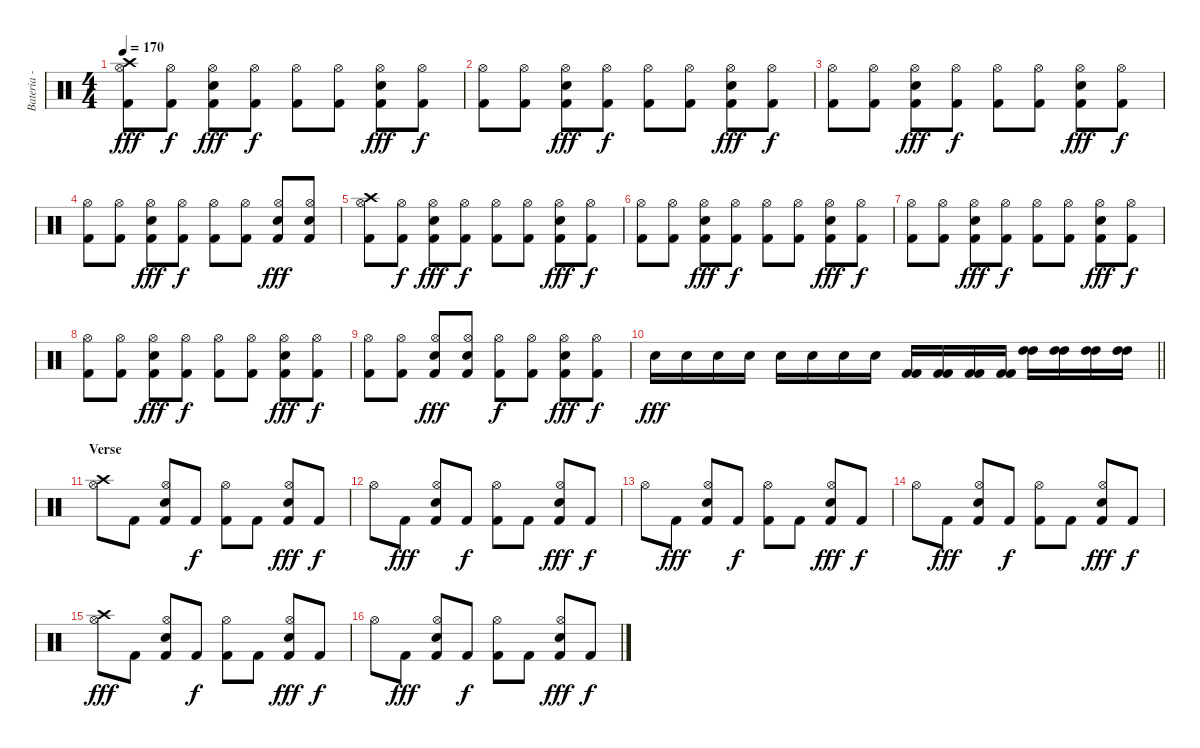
\track ("Bateria - Larzon" "Bateria - ") {instrument percussion}
\staff {score}
\articulation defaults
\ts (4 4)
\tempo 170
\clef neutral
\ks c
("Crash high (hit)" "Kick (hit) 2" "Hi-Hat (open)").8{dy fff} ("Kick (hit) 2" "Hi-Hat (open)").8{dy f} ("Kick (hit) 2" "Hi-Hat (open)" "Snare (hit) 2").8{dy fff} ("Kick (hit) 2" "Hi-Hat (open)").8{dy f} ("Kick (hit) 2" "Hi-Hat (open)").8 ("Kick (hit) 2" "Hi-Hat (open)").8 ("Kick (hit) 2" "Hi-Hat (open)" "Snare (hit) 2").8{dy fff} ("Kick (hit) 2" "Hi-Hat (open)").8{dy f} |
("Kick (hit) 2" "Hi-Hat (open)").8 ("Kick (hit) 2" "Hi-Hat (open)").8 ("Kick (hit) 2" "Hi-Hat (open)" "Snare (hit) 2").8{dy fff} ("Kick (hit) 2" "Hi-Hat (open)").8{dy f} ("Kick (hit) 2" "Hi-Hat (open)").8 ("Kick (hit) 2" "Hi-Hat (open)").8 ("Kick (hit) 2" "Hi-Hat (open)" "Snare (hit) 2").8{dy fff} ("Kick (hit) 2" "Hi-Hat (open)").8{dy f} |
("Kick (hit) 2" "Hi-Hat (open)").8 ("Kick (hit) 2" "Hi-Hat (open)").8 ("Kick (hit) 2" "Hi-Hat (open)" "Snare (hit) 2").8{dy fff} ("Kick (hit) 2" "Hi-Hat (open)").8{dy f} ("Kick (hit) 2" "Hi-Hat (open)").8 ("Kick (hit) 2" "Hi-Hat (open)").8 ("Kick (hit) 2" "Hi-Hat (open)" "Snare (hit) 2").8{dy fff} ("Kick (hit) 2" "Hi-Hat (open)").8{dy f} |
("Kick (hit) 2" "Hi-Hat (open)").8 ("Kick (hit) 2" "Hi-Hat (open)").8 ("Kick (hit) 2" "Hi-Hat (open)" "Snare (hit) 2").8{dy fff} ("Kick (hit) 2" "Hi-Hat (open)").8{dy f} ("Kick (hit) 2" "Hi-Hat (open)").8 ("Kick (hit) 2" "Hi-Hat (open)").8 ("Kick (hit) 2" "Hi-Hat (open)" "Snare (hit) 2").8{dy fff} ("Kick (hit) 2" "Hi-Hat (open)" "Snare (hit) 2").8 |
("Crash high (hit)" "Kick (hit) 2" "Hi-Hat (open)").8 ("Kick (hit) 2" "Hi-Hat (open)").8{dy f} ("Kick (hit) 2" "Hi-Hat (open)" "Snare (hit) 2").8{dy fff} ("Kick (hit) 2" "Hi-Hat (open)").8{dy f} ("Kick (hit) 2" "Hi-Hat (open)").8 ("Kick (hit) 2" "Hi-Hat (open)").8 ("Kick (hit) 2" "Hi-Hat (open)" "Snare (hit) 2").8{dy fff} ("Kick (hit) 2" "Hi-Hat (open)").8{dy f} |
("Kick (hit) 2" "Hi-Hat (open)").8 ("Kick (hit) 2" "Hi-Hat (open)").8 ("Kick (hit) 2" "Hi-Hat (open)" "Snare (hit) 2").8{dy fff} ("Kick (hit) 2" "Hi-Hat (open)").8{dy f} ("Kick (hit) 2" "Hi-Hat (open)").8 ("Kick (hit) 2" "Hi-Hat (open)").8 ("Kick (hit) 2" "Hi-Hat (open)" "Snare (hit) 2").8{dy fff} ("Kick (hit) 2" "Hi-Hat (open)").8{dy f} |
("Kick (hit) 2" "Hi-Hat (open)").8 ("Kick (hit) 2" "Hi-Hat (open)").8 ("Kick (hit) 2" "Hi-Hat (open)" "Snare (hit) 2").8{dy fff} ("Kick (hit) 2" "Hi-Hat (open)").8{dy f} ("Kick (hit) 2" "Hi-Hat (open)").8 ("Kick (hit) 2" "Hi-Hat (open)").8 ("Kick (hit) 2" "Hi-Hat (open)" "Snare (hit) 2").8{dy fff} ("Kick (hit) 2" "Hi-Hat (open)").8{dy f} |
("Kick (hit) 2" "Hi-Hat (open)").8 ("Kick (hit) 2" "Hi-Hat (open)").8 ("Kick (hit) 2" "Hi-Hat (open)" "Snare (hit) 2").8{dy fff} ("Kick (hit) 2" "Hi-Hat (open)").8{dy f} ("Kick (hit) 2" "Hi-Hat (open)").8 ("Kick (hit) 2" "Hi-Hat (open)").8 ("Kick (hit) 2" "Hi-Hat (open)" "Snare (hit) 2").8{dy fff} ("Kick (hit) 2" "Hi-Hat (open)").8{dy f} |
("Kick (hit) 2" "Hi-Hat (open)").8 ("Kick (hit) 2" "Hi-Hat (open)").8 ("Kick (hit) 2" "Hi-Hat (open)" "Snare (hit) 2").8{dy fff} ("Kick (hit) 2" "Hi-Hat (open)" "Snare (hit) 2").8 ("Kick (hit) 2" "Hi-Hat (open)").8{dy f} ("Kick (hit) 2" "Hi-Hat (open)").8 ("Kick (hit) 2" "Hi-Hat (open)" "Snare (hit) 2").8{dy fff} ("Kick (hit) 2" "Hi-Hat (open)").8{dy f} |
\barLineRight lightlight "Snare (hit) 2".16{dy fff} "Snare (hit) 2".16 "Snare (hit) 2".16 "Snare (hit) 2".16 "Snare (hit) 2".16 "Snare (hit) 2".16 "Snare (hit) 2".16 "Snare (hit) 2".16
("Kick (hit) 2" "Kick (hit) 2").16 ("Kick (hit) 2" "Kick (hit) 2").16 ("Kick (hit) 2" "Kick (hit) 2").16 ("Kick (hit) 2" "Kick (hit) 2").16 ("High Tom (hit)" "High Tom (hit)").16 ("High Tom (hit)" "High Tom (hit)").16 ("High Tom (hit)" "High Tom (hit)").16 ("High Tom (hit)" "High Tom (hit)").16 |
\section ("" "Verse")
("Crash high (hit)" "Hi-Hat (open)").8 "Kick (hit) 2".8 ("Kick (hit) 2" "Hi-Hat (open)" "Snare (hit) 2").8 "Kick (hit) 2".8{dy f} ("Kick (hit) 2" "Hi-Hat (open)").8 "Kick (hit) 2".8 ("Kick (hit) 2" "Hi-Hat (open)" "Snare (hit) 2").8{dy fff} "Kick (hit) 2".8{dy f} |
"Hi-Hat (open)".8 "Kick (hit) 2".8{dy fff} ("Kick (hit) 2" "Hi-Hat (open)" "Snare (hit) 2").8 "Kick (hit) 2".8{dy f} ("Kick (hit) 2" "Hi-Hat (open)").8 "Kick (hit) 2".8 ("Kick (hit) 2" "Hi-Hat (open)" "Snare (hit) 2").8{dy fff} "Kick (hit) 2".8{dy f} |
"Hi-Hat (open)".8 "Kick (hit) 2".8{dy fff} ("Kick (hit) 2" "Hi-Hat (open)" "Snare (hit) 2").8 "Kick (hit) 2".8{dy f} ("Kick (hit) 2" "Hi-Hat (open)").8 "Kick (hit) 2".8 ("Kick (hit) 2" "Hi-Hat (open)" "Snare (hit) 2").8{dy fff} "Kick (hit) 2".8{dy f} |
"Hi-Hat (open)".8 "Kick (hit) 2".8{dy fff} ("Kick (hit) 2" "Hi-Hat (open)" "Snare (hit) 2").8 "Kick (hit) 2".8{dy f} ("Kick (hit) 2" "Hi-Hat (open)").8 "Kick (hit) 2".8 ("Kick (hit) 2" "Hi-Hat (open)" "Snare (hit) 2").8{dy fff} "Kick (hit) 2".8{dy f} |
("Crash high (hit)" "Hi-Hat (open)").8{dy fff} "Kick (hit) 2".8 ("Kick (hit) 2" "Hi-Hat (open)" "Snare (hit) 2").8 "Kick (hit) 2".8{dy f} ("Kick (hit) 2" "Hi-Hat (open)").8 "Kick (hit) 2".8 ("Kick (hit) 2" "Hi-Hat (open)" "Snare (hit) 2").8{dy fff} "Kick (hit) 2".8{dy f} |
"Hi-Hat (open)".8 "Kick (hit) 2".8{dy fff} ("Kick (hit) 2" "Hi-Hat (open)" "Snare (hit) 2").8 "Kick (hit) 2".8{dy f} ("Kick (hit) 2" "Hi-Hat (open)").8 "Kick (hit) 2".8 ("Kick (hit) 2" "Hi-Hat (open)" "Snare (hit) 2").8{dy fff} "Kick (hit) 2".8{dy f}
